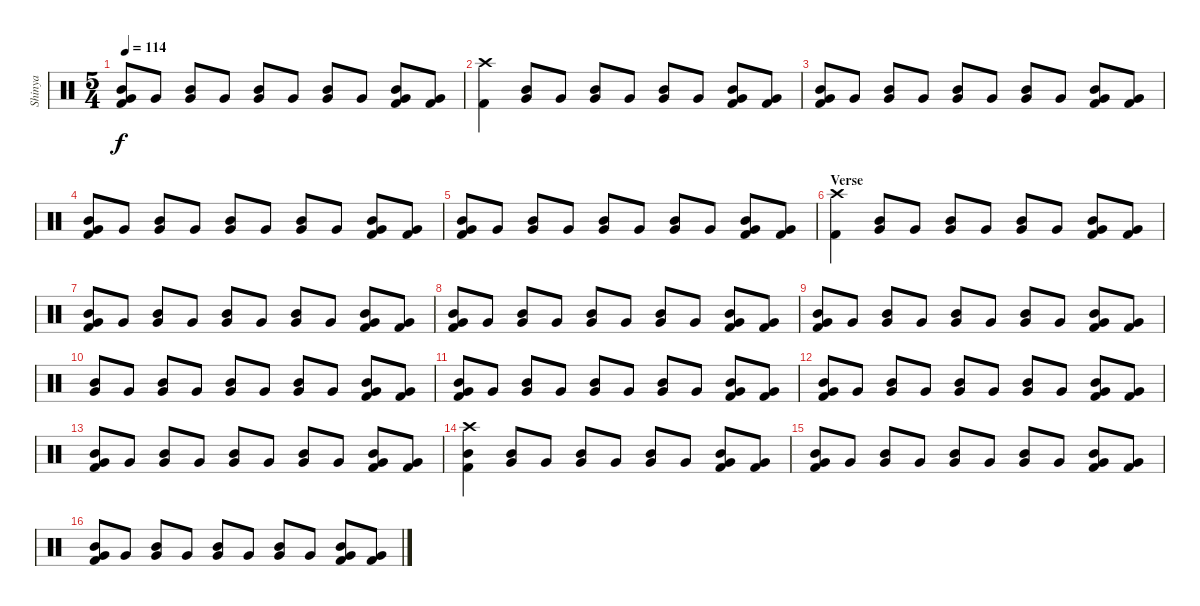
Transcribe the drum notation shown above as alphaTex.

\track ("Shinya" "Shinya") {instrument percussion}
\staff {score}
\articulation defaults
\ts (5 4)
\tempo 114
\clef neutral
\ks c
("Mid Tom (hit)" "Very Low Tom (hit)" "Kick (hit) 2").8{dy f} "Very Low Tom (hit)".8 ("Mid Tom (hit)" "Very Low Tom (hit)").8 "Very Low Tom (hit)".8 ("Mid Tom (hit)" "Very Low Tom (hit)").8 "Very Low Tom (hit)".8 ("Mid Tom (hit)" "Very Low Tom (hit)").8 "Very Low Tom (hit)".8 ("Mid Tom (hit)" "Very Low Tom (hit)" "Kick (hit) 2").8 ("Very Low Tom (hit)" "Kick (hit) 2").8 |
("Crash high (hit)" "Kick (hit) 2").4 ("Mid Tom (hit)" "Very Low Tom (hit)").8 "Very Low Tom (hit)".8 ("Mid Tom (hit)" "Very Low Tom (hit)").8 "Very Low Tom (hit)".8 ("Mid Tom (hit)" "Very Low Tom (hit)").8 "Very Low Tom (hit)".8 ("Mid Tom (hit)" "Very Low Tom (hit)" "Kick (hit) 2").8 ("Very Low Tom (hit)" "Kick (hit) 2").8 |
("Mid Tom (hit)" "Very Low Tom (hit)" "Kick (hit) 2").8 "Very Low Tom (hit)".8 ("Mid Tom (hit)" "Very Low Tom (hit)").8 "Very Low Tom (hit)".8 ("Mid Tom (hit)" "Very Low Tom (hit)").8 "Very Low Tom (hit)".8 ("Mid Tom (hit)" "Very Low Tom (hit)").8 "Very Low Tom (hit)".8 ("Mid Tom (hit)" "Very Low Tom (hit)" "Kick (hit) 2").8 ("Very Low Tom (hit)" "Kick (hit) 2").8 |
("Mid Tom (hit)" "Very Low Tom (hit)" "Kick (hit) 2").8 "Very Low Tom (hit)".8 ("Mid Tom (hit)" "Very Low Tom (hit)").8 "Very Low Tom (hit)".8 ("Mid Tom (hit)" "Very Low Tom (hit)").8 "Very Low Tom (hit)".8 ("Mid Tom (hit)" "Very Low Tom (hit)").8 "Very Low Tom (hit)".8 ("Mid Tom (hit)" "Very Low Tom (hit)" "Kick (hit) 2").8 ("Very Low Tom (hit)" "Kick (hit) 2").8 |
("Mid Tom (hit)" "Very Low Tom (hit)" "Kick (hit) 2").8 "Very Low Tom (hit)".8 ("Mid Tom (hit)" "Very Low Tom (hit)").8 "Very Low Tom (hit)".8 ("Mid Tom (hit)" "Very Low Tom (hit)").8 "Very Low Tom (hit)".8 ("Mid Tom (hit)" "Very Low Tom (hit)").8 "Very Low Tom (hit)".8 ("Mid Tom (hit)" "Very Low Tom (hit)" "Kick (hit) 2").8 ("Very Low Tom (hit)" "Kick (hit) 2").8 |
\section ("" "Verse")
("Crash high (hit)" "Kick (hit) 2").4 ("Mid Tom (hit)" "Very Low Tom (hit)").8 "Very Low Tom (hit)".8 ("Mid Tom (hit)" "Very Low Tom (hit)").8 "Very Low Tom (hit)".8 ("Mid Tom (hit)" "Very Low Tom (hit)").8 "Very Low Tom (hit)".8 ("Mid Tom (hit)" "Very Low Tom (hit)" "Kick (hit) 2").8 ("Very Low Tom (hit)" "Kick (hit) 2").8 |
("Mid Tom (hit)" "Very Low Tom (hit)" "Kick (hit) 2").8 "Very Low Tom (hit)".8 ("Mid Tom (hit)" "Very Low Tom (hit)").8 "Very Low Tom (hit)".8 ("Mid Tom (hit)" "Very Low Tom (hit)").8 "Very Low Tom (hit)".8 ("Mid Tom (hit)" "Very Low Tom (hit)").8 "Very Low Tom (hit)".8 ("Mid Tom (hit)" "Very Low Tom (hit)" "Kick (hit) 2").8 ("Very Low Tom (hit)" "Kick (hit) 2").8 |
("Mid Tom (hit)" "Very Low Tom (hit)" "Kick (hit) 2").8 "Very Low Tom (hit)".8 ("Mid Tom (hit)" "Very Low Tom (hit)").8 "Very Low Tom (hit)".8 ("Mid Tom (hit)" "Very Low Tom (hit)").8 "Very Low Tom (hit)".8 ("Mid Tom (hit)" "Very Low Tom (hit)").8 "Very Low Tom (hit)".8 ("Mid Tom (hit)" "Very Low Tom (hit)" "Kick (hit) 2").8 ("Very Low Tom (hit)" "Kick (hit) 2").8 |
("Mid Tom (hit)" "Very Low Tom (hit)" "Kick (hit) 2").8 "Very Low Tom (hit)".8 ("Mid Tom (hit)" "Very Low Tom (hit)").8 "Very Low Tom (hit)".8 ("Mid Tom (hit)" "Very Low Tom (hit)").8 "Very Low Tom (hit)".8 ("Mid Tom (hit)" "Very Low Tom (hit)").8 "Very Low Tom (hit)".8 ("Mid Tom (hit)" "Very Low Tom (hit)" "Kick (hit) 2").8 ("Very Low Tom (hit)" "Kick (hit) 2").8 |
("Mid Tom (hit)" "Very Low Tom (hit)").8 "Very Low Tom (hit)".8 ("Mid Tom (hit)" "Very Low Tom (hit)").8 "Very Low Tom (hit)".8 ("Mid Tom (hit)" "Very Low Tom (hit)").8 "Very Low Tom (hit)".8 ("Mid Tom (hit)" "Very Low Tom (hit)").8 "Very Low Tom (hit)".8 ("Mid Tom (hit)" "Very Low Tom (hit)" "Kick (hit) 2").8 ("Very Low Tom (hit)" "Kick (hit) 2").8 |
("Mid Tom (hit)" "Very Low Tom (hit)" "Kick (hit) 2").8 "Very Low Tom (hit)".8 ("Mid Tom (hit)" "Very Low Tom (hit)").8 "Very Low Tom (hit)".8 ("Mid Tom (hit)" "Very Low Tom (hit)").8 "Very Low Tom (hit)".8 ("Mid Tom (hit)" "Very Low Tom (hit)").8 "Very Low Tom (hit)".8 ("Mid Tom (hit)" "Very Low Tom (hit)" "Kick (hit) 2").8 ("Very Low Tom (hit)" "Kick (hit) 2").8 |
("Mid Tom (hit)" "Very Low Tom (hit)" "Kick (hit) 2").8 "Very Low Tom (hit)".8 ("Mid Tom (hit)" "Very Low Tom (hit)").8 "Very Low Tom (hit)".8 ("Mid Tom (hit)" "Very Low Tom (hit)").8 "Very Low Tom (hit)".8 ("Mid Tom (hit)" "Very Low Tom (hit)").8 "Very Low Tom (hit)".8 ("Mid Tom (hit)" "Very Low Tom (hit)" "Kick (hit) 2").8 ("Very Low Tom (hit)" "Kick (hit) 2").8 |
("Mid Tom (hit)" "Very Low Tom (hit)" "Kick (hit) 2").8 "Very Low Tom (hit)".8 ("Mid Tom (hit)" "Very Low Tom (hit)").8 "Very Low Tom (hit)".8 ("Mid Tom (hit)" "Very Low Tom (hit)").8 "Very Low Tom (hit)".8 ("Mid Tom (hit)" "Very Low Tom (hit)").8 "Very Low Tom (hit)".8 ("Mid Tom (hit)" "Very Low Tom (hit)" "Kick (hit) 2").8 ("Very Low Tom (hit)" "Kick (hit) 2").8 |
("Crash high (hit)" "Kick (hit) 2" "Mid Tom (hit)").4 ("Mid Tom (hit)" "Very Low Tom (hit)").8 "Very Low Tom (hit)".8 ("Mid Tom (hit)" "Very Low Tom (hit)").8 "Very Low Tom (hit)".8 ("Mid Tom (hit)" "Very Low Tom (hit)").8 "Very Low Tom (hit)".8 ("Mid Tom (hit)" "Very Low Tom (hit)" "Kick (hit) 2").8 ("Very Low Tom (hit)" "Kick (hit) 2").8 |
("Mid Tom (hit)" "Very Low Tom (hit)" "Kick (hit) 2").8 "Very Low Tom (hit)".8 ("Mid Tom (hit)" "Very Low Tom (hit)").8 "Very Low Tom (hit)".8 ("Mid Tom (hit)" "Very Low Tom (hit)").8 "Very Low Tom (hit)".8 ("Mid Tom (hit)" "Very Low Tom (hit)").8 "Very Low Tom (hit)".8 ("Mid Tom (hit)" "Very Low Tom (hit)" "Kick (hit) 2").8 ("Very Low Tom (hit)" "Kick (hit) 2").8 |
("Mid Tom (hit)" "Very Low Tom (hit)" "Kick (hit) 2").8 "Very Low Tom (hit)".8 ("Mid Tom (hit)" "Very Low Tom (hit)").8 "Very Low Tom (hit)".8 ("Mid Tom (hit)" "Very Low Tom (hit)").8 "Very Low Tom (hit)".8 ("Mid Tom (hit)" "Very Low Tom (hit)").8 "Very Low Tom (hit)".8 ("Mid Tom (hit)" "Very Low Tom (hit)" "Kick (hit) 2").8 ("Very Low Tom (hit)" "Kick (hit) 2").8
